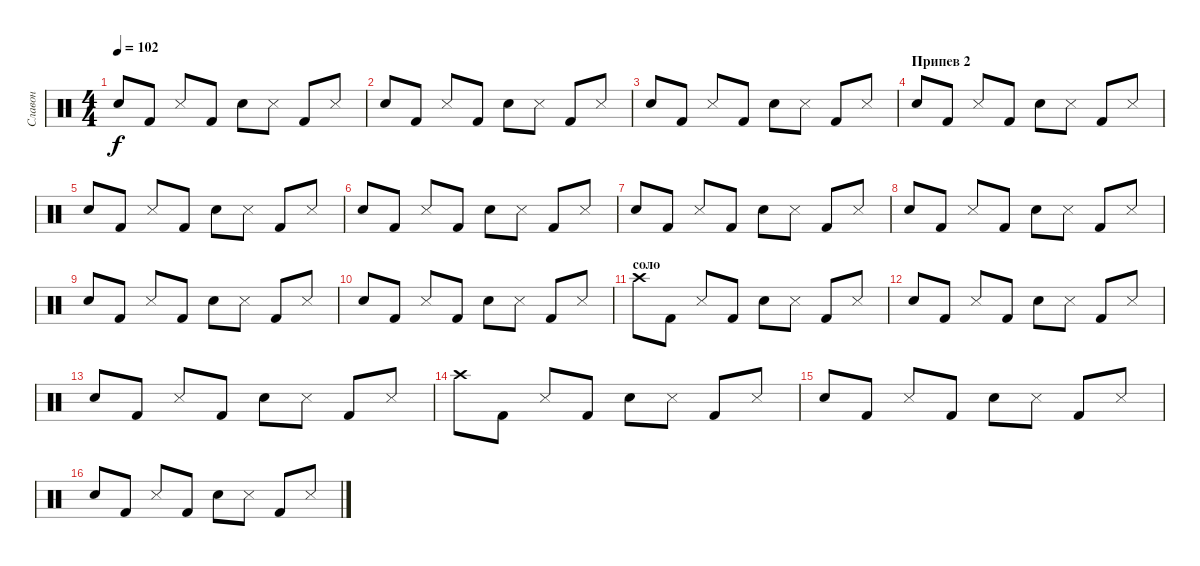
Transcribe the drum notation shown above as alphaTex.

\track ("Славон" "Славон") {instrument percussion}
\staff {score}
\articulation defaults
\ts (4 4)
\tempo 102
\clef neutral
\ks c "Snare (hit) 2".8{dy f} "Kick (hit) 2".8 "Snare (side stick) 3".8 "Kick (hit) 2".8 "Snare (hit) 2".8 "Snare (side stick) 3".8 "Kick (hit) 2".8 "Snare (side stick) 3".8
|
"Snare (hit) 2".8 "Kick (hit) 2".8 "Snare (side stick) 3".8 "Kick (hit) 2".8 "Snare (hit) 2".8 "Snare (side stick) 3".8 "Kick (hit) 2".8 "Snare (side stick) 3".8 |
"Snare (hit) 2".8 "Kick (hit) 2".8 "Snare (side stick) 3".8 "Kick (hit) 2".8 "Snare (hit) 2".8 "Snare (side stick) 3".8 "Kick (hit) 2".8 "Snare (side stick) 3".8 |
\section ("" "Припев 2")
"Snare (hit) 2".8 "Kick (hit) 2".8 "Snare (side stick) 3".8 "Kick (hit) 2".8 "Snare (hit) 2".8 "Snare (side stick) 3".8 "Kick (hit) 2".8 "Snare (side stick) 3".8 |
"Snare (hit) 2".8 "Kick (hit) 2".8 "Snare (side stick) 3".8 "Kick (hit) 2".8 "Snare (hit) 2".8 "Snare (side stick) 3".8 "Kick (hit) 2".8 "Snare (side stick) 3".8 |
"Snare (hit) 2".8 "Kick (hit) 2".8 "Snare (side stick) 3".8 "Kick (hit) 2".8 "Snare (hit) 2".8 "Snare (side stick) 3".8 "Kick (hit) 2".8 "Snare (side stick) 3".8 |
"Snare (hit) 2".8 "Kick (hit) 2".8 "Snare (side stick) 3".8 "Kick (hit) 2".8 "Snare (hit) 2".8 "Snare (side stick) 3".8 "Kick (hit) 2".8 "Snare (side stick) 3".8 |
"Snare (hit) 2".8 "Kick (hit) 2".8 "Snare (side stick) 3".8 "Kick (hit) 2".8 "Snare (hit) 2".8 "Snare (side stick) 3".8 "Kick (hit) 2".8 "Snare (side stick) 3".8 |
"Snare (hit) 2".8 "Kick (hit) 2".8 "Snare (side stick) 3".8 "Kick (hit) 2".8 "Snare (hit) 2".8 "Snare (side stick) 3".8 "Kick (hit) 2".8 "Snare (side stick) 3".8 |
"Snare (hit) 2".8 "Kick (hit) 2".8 "Snare (side stick) 3".8 "Kick (hit) 2".8 "Snare (hit) 2".8 "Snare (side stick) 3".8 "Kick (hit) 2".8 "Snare (side stick) 3".8 |
\section ("" "соло")
"Crash high (hit)".8 "Kick (hit) 2".8 "Snare (side stick) 3".8 "Kick (hit) 2".8 "Snare (hit) 2".8 "Snare (side stick) 3".8 "Kick (hit) 2".8 "Snare (side stick) 3".8 |
"Snare (hit) 2".8 "Kick (hit) 2".8 "Snare (side stick) 3".8 "Kick (hit) 2".8 "Snare (hit) 2".8 "Snare (side stick) 3".8 "Kick (hit) 2".8 "Snare (side stick) 3".8 |
"Snare (hit) 2".8 "Kick (hit) 2".8 "Snare (side stick) 3".8 "Kick (hit) 2".8 "Snare (hit) 2".8 "Snare (side stick) 3".8 "Kick (hit) 2".8 "Snare (side stick) 3".8 |
"Crash high (hit)".8 "Kick (hit) 2".8 "Snare (side stick) 3".8 "Kick (hit) 2".8 "Snare (hit) 2".8 "Snare (side stick) 3".8 "Kick (hit) 2".8 "Snare (side stick) 3".8 |
"Snare (hit) 2".8 "Kick (hit) 2".8 "Snare (side stick) 3".8 "Kick (hit) 2".8 "Snare (hit) 2".8 "Snare (side stick) 3".8 "Kick (hit) 2".8 "Snare (side stick) 3".8 |
"Snare (hit) 2".8 "Kick (hit) 2".8 "Snare (side stick) 3".8 "Kick (hit) 2".8 "Snare (hit) 2".8 "Snare (side stick) 3".8 "Kick (hit) 2".8 "Snare (side stick) 3".8
